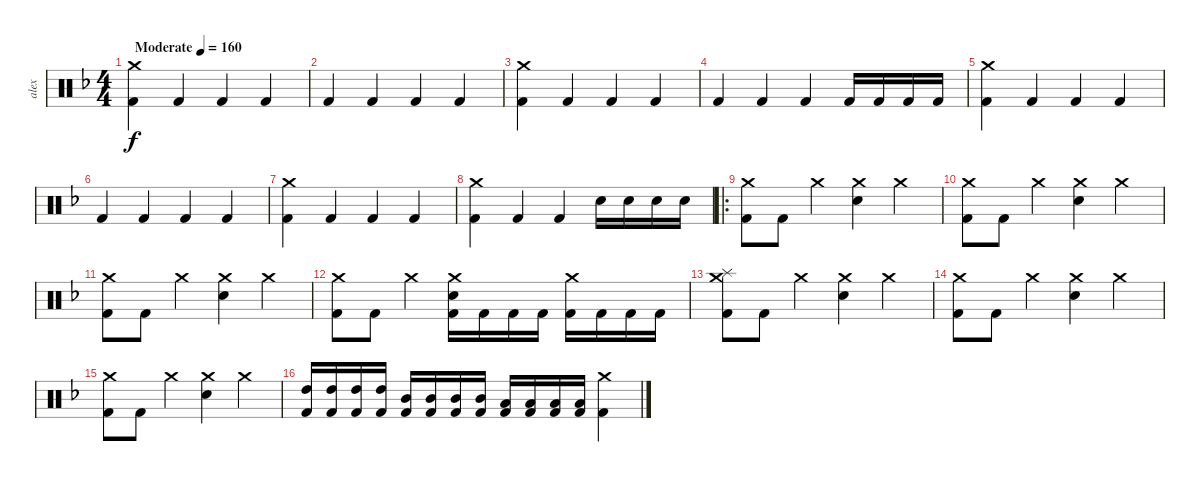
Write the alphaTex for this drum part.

\track ("alex" "alex") {instrument percussion}
\staff {score}
\articulation defaults
\ts (4 4)
\tempo (160 "Moderate")
\clef neutral
\ks f
("Crash medium (hit)" "Kick (hit) 2").4{dy f} "Kick (hit) 2".4 "Kick (hit) 2".4 "Kick (hit) 2".4 |
"Kick (hit) 2".4 "Kick (hit) 2".4 "Kick (hit) 2".4 "Kick (hit) 2".4 |
("Crash medium (hit)" "Kick (hit) 2").4 "Kick (hit) 2".4 "Kick (hit) 2".4 "Kick (hit) 2".4 |
"Kick (hit) 2".4 "Kick (hit) 2".4 "Kick (hit) 2".4 "Kick (hit) 2".16 "Kick (hit) 2".16 "Kick (hit) 2".16 "Kick (hit) 2".16 |
("Crash medium (hit)" "Kick (hit) 2").4 "Kick (hit) 2".4 "Kick (hit) 2".4 "Kick (hit) 2".4 |
"Kick (hit) 2".4 "Kick (hit) 2".4 "Kick (hit) 2".4 "Kick (hit) 2".4 |
("Crash medium (hit)" "Kick (hit) 2").4 "Kick (hit) 2".4 "Kick (hit) 2".4 "Kick (hit) 2".4 |
("Crash medium (hit)" "Kick (hit) 2").4 "Kick (hit) 2".4 "Kick (hit) 2".4 "Electric Snare (hit)".16 "Electric Snare (hit)".16 "Electric Snare (hit)".16 "Electric Snare (hit)".16 |
\ro
("Kick (hit) 2" "Crash medium (hit)").8 "Kick (hit) 2".8 "Crash medium (hit)".4 ("Electric Snare (hit)" "Crash medium (hit)").4 "Crash medium (hit)".4 |
("Kick (hit) 2" "Crash medium (hit)").8 "Kick (hit) 2".8 "Crash medium (hit)".4 ("Electric Snare (hit)" "Crash medium (hit)").4 "Crash medium (hit)".4 |
("Kick (hit) 2" "Crash medium (hit)").8 "Kick (hit) 2".8 "Crash medium (hit)".4 ("Electric Snare (hit)" "Crash medium (hit)").4 "Crash medium (hit)".4 |
("Kick (hit) 2" "Crash medium (hit)").8 "Kick (hit) 2".8 "Crash medium (hit)".4 ("Kick (hit) 2" "Crash medium (hit)" "Electric Snare (hit)").16 "Kick (hit) 2".16 "Kick (hit) 2".16 "Kick (hit) 2".16 ("Kick (hit) 2" "Crash medium (hit)").16 "Kick (hit) 2".16 "Kick (hit) 2".16 "Kick (hit) 2".16 |
("Splash (hit)" "Kick (hit) 2" "Crash medium (hit)").8 "Kick (hit) 2".8 "Crash medium (hit)".4 ("Electric Snare (hit)" "Crash medium (hit)").4 "Crash medium (hit)".4 |
("Kick (hit) 2" "Crash medium (hit)").8 "Kick (hit) 2".8 "Crash medium (hit)".4 ("Electric Snare (hit)" "Crash medium (hit)").4 "Crash medium (hit)".4 |
("Kick (hit) 2" "Crash medium (hit)").8 "Kick (hit) 2".8 "Crash medium (hit)".4 ("Electric Snare (hit)" "Crash medium (hit)").4 "Crash medium (hit)".4 |
("High Tom (hit)" "Kick (hit) 2").16 ("High Tom (hit)" "Kick (hit) 2").16 ("High Tom (hit)" "Kick (hit) 2").16 ("High Tom (hit)" "Kick (hit) 2").16 ("Mid Tom (hit)" "Kick (hit) 2").16 ("Mid Tom (hit)" "Kick (hit) 2").16 ("Mid Tom (hit)" "Kick (hit) 2").16 ("Mid Tom (hit)" "Kick (hit) 2").16 ("Low Tom (hit)" "Kick (hit) 2").16 ("Low Tom (hit)" "Kick (hit) 2").16 ("Low Tom (hit)" "Kick (hit) 2").16 ("Low Tom (hit)" "Kick (hit) 2").16 ("Crash medium (hit)" "Kick (hit) 2").4
